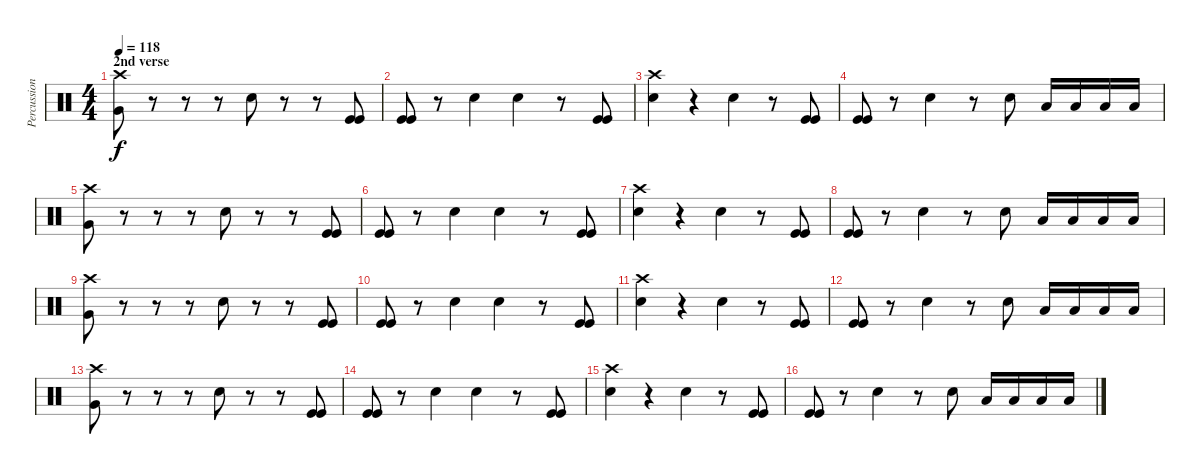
\track ("Percussion" "Percussion") {instrument percussion}
\staff {score}
\articulation defaults
\ts (4 4)
\section ("" "2nd verse")
\tempo 118
\clef neutral
\ks c
("Crash high (hit)" "Very Low Tom (hit)").8{dy f} r.8 r.8 r.8 "Electric Snare (hit)".8 r.8 r.8 ("Kick (hit)" "Kick (hit)").8 |
("Kick (hit)" "Kick (hit)").8 r.8 "Electric Snare (hit)".4 "Electric Snare (hit)".4 r.8 ("Kick (hit)" "Kick (hit)").8 |
("Crash high (hit)" "Electric Snare (hit)").4 r.4 "Electric Snare (hit)".4 r.8 ("Kick (hit)" "Kick (hit)").8 |
("Kick (hit)" "Kick (hit)").8 r.8 "Electric Snare (hit)".4 r.8 "Electric Snare (hit)".8 "Low Tom (hit)".16 "Low Floor Tom (hit)".16 "Low Tom (hit)".16 "Low Floor Tom (hit)".16 |
("Crash high (hit)" "Very Low Tom (hit)").8 r.8 r.8 r.8 "Electric Snare (hit)".8 r.8 r.8 ("Kick (hit)" "Kick (hit)").8 |
("Kick (hit)" "Kick (hit)").8 r.8 "Electric Snare (hit)".4 "Electric Snare (hit)".4 r.8 ("Kick (hit)" "Kick (hit)").8 |
("Crash high (hit)" "Electric Snare (hit)").4 r.4 "Electric Snare (hit)".4 r.8 ("Kick (hit)" "Kick (hit)").8 |
("Kick (hit)" "Kick (hit)").8 r.8 "Electric Snare (hit)".4 r.8 "Electric Snare (hit)".8 "Low Tom (hit)".16 "Low Floor Tom (hit)".16 "Low Tom (hit)".16 "Low Floor Tom (hit)".16 |
("Crash high (hit)" "Very Low Tom (hit)").8 r.8 r.8 r.8 "Electric Snare (hit)".8 r.8 r.8 ("Kick (hit)" "Kick (hit)").8 |
("Kick (hit)" "Kick (hit)").8 r.8 "Electric Snare (hit)".4 "Electric Snare (hit)".4 r.8 ("Kick (hit)" "Kick (hit)").8 |
("Crash high (hit)" "Electric Snare (hit)").4 r.4 "Electric Snare (hit)".4 r.8 ("Kick (hit)" "Kick (hit)").8 |
("Kick (hit)" "Kick (hit)").8 r.8 "Electric Snare (hit)".4 r.8 "Electric Snare (hit)".8 "Low Tom (hit)".16 "Low Floor Tom (hit)".16 "Low Tom (hit)".16 "Low Floor Tom (hit)".16 |
("Crash high (hit)" "Very Low Tom (hit)").8 r.8 r.8 r.8 "Electric Snare (hit)".8 r.8 r.8 ("Kick (hit)" "Kick (hit)").8 |
("Kick (hit)" "Kick (hit)").8 r.8 "Electric Snare (hit)".4 "Electric Snare (hit)".4 r.8 ("Kick (hit)" "Kick (hit)").8 |
("Crash high (hit)" "Electric Snare (hit)").4 r.4 "Electric Snare (hit)".4 r.8 ("Kick (hit)" "Kick (hit)").8 |
("Kick (hit)" "Kick (hit)").8 r.8 "Electric Snare (hit)".4 r.8 "Electric Snare (hit)".8 "Low Tom (hit)".16 "Low Floor Tom (hit)".16 "Low Tom (hit)".16 "Low Floor Tom (hit)".16
